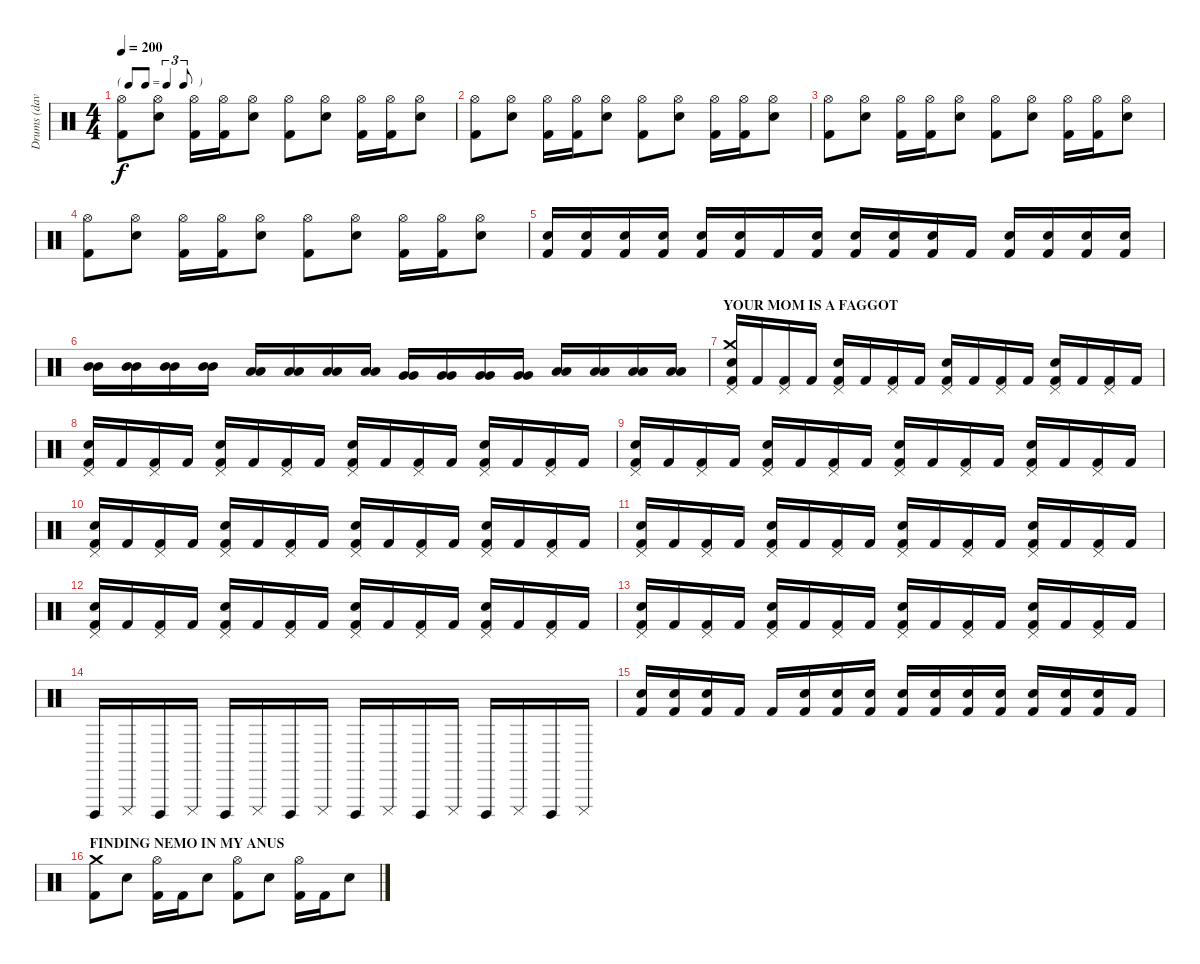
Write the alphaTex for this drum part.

\track ("Drums (dave)" "Drums (dav") {instrument percussion}
\staff {score}
\articulation defaults
\ts (4 4)
\tf triplet8th
\tempo 200
\clef neutral
\ks c
("Hi-Hat (open)" "Kick (hit) 2").8{dy f} ("Hi-Hat (open)" "Snare (hit) 2").8 ("Hi-Hat (open)" "Kick (hit) 2").16 ("Hi-Hat (open)" "Kick (hit) 2").16 ("Hi-Hat (open)" "Snare (hit) 2").8 ("Hi-Hat (open)" "Kick (hit) 2").8 ("Hi-Hat (open)" "Snare (hit) 2").8 ("Hi-Hat (open)" "Kick (hit) 2").16 ("Hi-Hat (open)" "Kick (hit) 2").16 ("Hi-Hat (open)" "Snare (hit) 2").8 |
("Hi-Hat (open)" "Kick (hit) 2").8 ("Hi-Hat (open)" "Snare (hit) 2").8 ("Hi-Hat (open)" "Kick (hit) 2").16 ("Hi-Hat (open)" "Kick (hit) 2").16 ("Hi-Hat (open)" "Snare (hit) 2").8 ("Hi-Hat (open)" "Kick (hit) 2").8 ("Hi-Hat (open)" "Snare (hit) 2").8 ("Hi-Hat (open)" "Kick (hit) 2").16 ("Hi-Hat (open)" "Kick (hit) 2").16 ("Hi-Hat (open)" "Snare (hit) 2").8 |
("Hi-Hat (open)" "Kick (hit) 2").8 ("Hi-Hat (open)" "Snare (hit) 2").8 ("Hi-Hat (open)" "Kick (hit) 2").16 ("Hi-Hat (open)" "Kick (hit) 2").16 ("Hi-Hat (open)" "Snare (hit) 2").8 ("Hi-Hat (open)" "Kick (hit) 2").8 ("Hi-Hat (open)" "Snare (hit) 2").8 ("Hi-Hat (open)" "Kick (hit) 2").16 ("Hi-Hat (open)" "Kick (hit) 2").16 ("Hi-Hat (open)" "Snare (hit) 2").8 |
("Hi-Hat (open)" "Kick (hit) 2").8 ("Hi-Hat (open)" "Snare (hit) 2").8 ("Hi-Hat (open)" "Kick (hit) 2").16 ("Hi-Hat (open)" "Kick (hit) 2").16 ("Hi-Hat (open)" "Snare (hit) 2").8 ("Hi-Hat (open)" "Kick (hit) 2").8 ("Hi-Hat (open)" "Snare (hit) 2").8 ("Hi-Hat (open)" "Kick (hit) 2").16 ("Hi-Hat (open)" "Kick (hit) 2").16 ("Hi-Hat (open)" "Snare (hit) 2").8 |
("Snare (hit) 2" "Kick (hit) 2").16 ("Snare (hit) 2" "Kick (hit) 2").16 ("Snare (hit) 2" "Kick (hit) 2").16 ("Snare (hit) 2" "Kick (hit) 2").16 ("Snare (hit) 2" "Kick (hit) 2").16 ("Snare (hit) 2" "Kick (hit) 2").16 "Kick (hit) 2".16 ("Snare (hit) 2" "Kick (hit) 2").16 ("Snare (hit) 2" "Kick (hit) 2").16 ("Snare (hit) 2" "Kick (hit) 2").16 ("Snare (hit) 2" "Kick (hit) 2").16 "Kick (hit) 2".16 ("Snare (hit) 2" "Kick (hit) 2").16 ("Snare (hit) 2" "Kick (hit) 2").16 ("Snare (hit) 2" "Kick (hit) 2").16 ("Snare (hit) 2" "Kick (hit) 2").16 |
("Mid Tom (hit)" "Mid Tom (hit)").16 ("Mid Tom (hit)" "Mid Tom (hit)").16 ("Mid Tom (hit)" "Mid Tom (hit)").16 ("Mid Tom (hit)" "Mid Tom (hit)").16 ("Low Tom (hit)" "Low Tom (hit)").16 ("Low Tom (hit)" "Low Tom (hit)").16 ("Low Tom (hit)" "Low Tom (hit)").16 ("Low Tom (hit)" "Low Tom (hit)").16 ("Very Low Tom (hit)" "Very Low Tom (hit)").16 ("Very Low Tom (hit)" "Very Low Tom (hit)").16 ("Very Low Tom (hit)" "Very Low Tom (hit)").16 ("Very Low Tom (hit)" "Very Low Tom (hit)").16 ("Low Floor Tom (hit)" "Low Floor Tom (hit)").16 ("Low Floor Tom (hit)" "Low Floor Tom (hit)").16 ("Low Floor Tom (hit)" "Low Floor Tom (hit)").16 ("Low Floor Tom (hit)" "Low Floor Tom (hit)").16 |
\section ("" "YOUR MOM IS A FAGGOT")
("Crash medium (hit)" "Pedal Hi-Hat (hit)" "Snare (hit) 2" "Kick (hit) 2").16 "Kick (hit) 2".16 ("Pedal Hi-Hat (hit)" "Kick (hit) 2").16 "Kick (hit) 2".16 ("Pedal Hi-Hat (hit)" "Snare (hit) 2" "Kick (hit) 2").16 "Kick (hit) 2".16 ("Pedal Hi-Hat (hit)" "Kick (hit) 2").16 "Kick (hit) 2".16 ("Pedal Hi-Hat (hit)" "Snare (hit) 2" "Kick (hit) 2").16 "Kick (hit) 2".16 ("Pedal Hi-Hat (hit)" "Kick (hit) 2").16 "Kick (hit) 2".16 ("Pedal Hi-Hat (hit)" "Snare (hit) 2" "Kick (hit) 2").16 "Kick (hit) 2".16 ("Pedal Hi-Hat (hit)" "Kick (hit) 2").16 "Kick (hit) 2".16 |
("Pedal Hi-Hat (hit)" "Snare (hit) 2" "Kick (hit) 2").16 "Kick (hit) 2".16 ("Pedal Hi-Hat (hit)" "Kick (hit) 2").16 "Kick (hit) 2".16 ("Pedal Hi-Hat (hit)" "Snare (hit) 2" "Kick (hit) 2").16 "Kick (hit) 2".16 ("Pedal Hi-Hat (hit)" "Kick (hit) 2").16 "Kick (hit) 2".16 ("Pedal Hi-Hat (hit)" "Snare (hit) 2" "Kick (hit) 2").16 "Kick (hit) 2".16 ("Pedal Hi-Hat (hit)" "Kick (hit) 2").16 "Kick (hit) 2".16 ("Pedal Hi-Hat (hit)" "Snare (hit) 2" "Kick (hit) 2").16 "Kick (hit) 2".16 ("Pedal Hi-Hat (hit)" "Kick (hit) 2").16 "Kick (hit) 2".16 |
("Pedal Hi-Hat (hit)" "Snare (hit) 2" "Kick (hit) 2").16 "Kick (hit) 2".16 ("Pedal Hi-Hat (hit)" "Kick (hit) 2").16 "Kick (hit) 2".16 ("Pedal Hi-Hat (hit)" "Snare (hit) 2" "Kick (hit) 2").16 "Kick (hit) 2".16 ("Pedal Hi-Hat (hit)" "Kick (hit) 2").16 "Kick (hit) 2".16 ("Pedal Hi-Hat (hit)" "Snare (hit) 2" "Kick (hit) 2").16 "Kick (hit) 2".16 ("Pedal Hi-Hat (hit)" "Kick (hit) 2").16 "Kick (hit) 2".16 ("Pedal Hi-Hat (hit)" "Snare (hit) 2" "Kick (hit) 2").16 "Kick (hit) 2".16 ("Pedal Hi-Hat (hit)" "Kick (hit) 2").16 "Kick (hit) 2".16 |
("Pedal Hi-Hat (hit)" "Snare (hit) 2" "Kick (hit) 2").16 "Kick (hit) 2".16 ("Pedal Hi-Hat (hit)" "Kick (hit) 2").16 "Kick (hit) 2".16 ("Pedal Hi-Hat (hit)" "Snare (hit) 2" "Kick (hit) 2").16 "Kick (hit) 2".16 ("Pedal Hi-Hat (hit)" "Kick (hit) 2").16 "Kick (hit) 2".16 ("Pedal Hi-Hat (hit)" "Snare (hit) 2" "Kick (hit) 2").16 "Kick (hit) 2".16 ("Pedal Hi-Hat (hit)" "Kick (hit) 2").16 "Kick (hit) 2".16 ("Pedal Hi-Hat (hit)" "Snare (hit) 2" "Kick (hit) 2").16 "Kick (hit) 2".16 ("Pedal Hi-Hat (hit)" "Kick (hit) 2").16 "Kick (hit) 2".16 |
("Pedal Hi-Hat (hit)" "Snare (hit) 2" "Kick (hit) 2").16 "Kick (hit) 2".16 ("Pedal Hi-Hat (hit)" "Kick (hit) 2").16 "Kick (hit) 2".16 ("Pedal Hi-Hat (hit)" "Snare (hit) 2" "Kick (hit) 2").16 "Kick (hit) 2".16 ("Pedal Hi-Hat (hit)" "Kick (hit) 2").16 "Kick (hit) 2".16 ("Pedal Hi-Hat (hit)" "Snare (hit) 2" "Kick (hit) 2").16 "Kick (hit) 2".16 ("Pedal Hi-Hat (hit)" "Kick (hit) 2").16 "Kick (hit) 2".16 ("Pedal Hi-Hat (hit)" "Snare (hit) 2" "Kick (hit) 2").16 "Kick (hit) 2".16 ("Pedal Hi-Hat (hit)" "Kick (hit) 2").16 "Kick (hit) 2".16 |
("Pedal Hi-Hat (hit)" "Snare (hit) 2" "Kick (hit) 2").16 "Kick (hit) 2".16 ("Pedal Hi-Hat (hit)" "Kick (hit) 2").16 "Kick (hit) 2".16 ("Pedal Hi-Hat (hit)" "Snare (hit) 2" "Kick (hit) 2").16 "Kick (hit) 2".16 ("Pedal Hi-Hat (hit)" "Kick (hit) 2").16 "Kick (hit) 2".16 ("Pedal Hi-Hat (hit)" "Snare (hit) 2" "Kick (hit) 2").16 "Kick (hit) 2".16 ("Pedal Hi-Hat (hit)" "Kick (hit) 2").16 "Kick (hit) 2".16 ("Pedal Hi-Hat (hit)" "Snare (hit) 2" "Kick (hit) 2").16 "Kick (hit) 2".16 ("Pedal Hi-Hat (hit)" "Kick (hit) 2").16 "Kick (hit) 2".16 |
("Pedal Hi-Hat (hit)" "Snare (hit) 2" "Kick (hit) 2").16 "Kick (hit) 2".16 ("Pedal Hi-Hat (hit)" "Kick (hit) 2").16 "Kick (hit) 2".16 ("Pedal Hi-Hat (hit)" "Snare (hit) 2" "Kick (hit) 2").16 "Kick (hit) 2".16 ("Pedal Hi-Hat (hit)" "Kick (hit) 2").16 "Kick (hit) 2".16 ("Pedal Hi-Hat (hit)" "Snare (hit) 2" "Kick (hit) 2").16 "Kick (hit) 2".16 ("Pedal Hi-Hat (hit)" "Kick (hit) 2").16 "Kick (hit) 2".16 ("Pedal Hi-Hat (hit)" "Snare (hit) 2" "Kick (hit) 2").16 "Kick (hit) 2".16 ("Pedal Hi-Hat (hit)" "Kick (hit) 2").16 "Kick (hit) 2".16 |
"Cuica (open)".16 "Cuica (mute)".16 "Cuica (open)".16 "Cuica (mute)".16 "Cuica (open)".16 "Cuica (mute)".16 "Cuica (open)".16 "Cuica (mute)".16 "Cuica (open)".16 "Cuica (mute)".16 "Cuica (open)".16 "Cuica (mute)".16 "Cuica (open)".16 "Cuica (mute)".16 "Cuica (open)".16 "Cuica (mute)".16 |
("Snare (hit) 2" "Kick (hit) 2").16 ("Snare (hit) 2" "Kick (hit) 2").16 ("Snare (hit) 2" "Kick (hit) 2").16 "Kick (hit) 2".16 "Kick (hit) 2".16 ("Snare (hit) 2" "Kick (hit) 2").16 ("Snare (hit) 2" "Kick (hit) 2").16 ("Snare (hit) 2" "Kick (hit) 2").16 ("Snare (hit) 2" "Kick (hit) 2").16 ("Snare (hit) 2" "Kick (hit) 2").16 ("Snare (hit) 2" "Kick (hit) 2").16 ("Snare (hit) 2" "Kick (hit) 2").16 ("Snare (hit) 2" "Kick (hit) 2").16 ("Snare (hit) 2" "Kick (hit) 2").16 ("Snare (hit) 2" "Kick (hit) 2").16 "Kick (hit) 2".16 |
\section ("" "FINDING NEMO IN MY ANUS")
("Crash medium (hit)" "Kick (hit) 2").8 "Snare (hit) 2".8 ("Hi-Hat (open)" "Kick (hit) 2").16 "Kick (hit) 2".16 "Snare (hit) 2".8 ("Hi-Hat (open)" "Kick (hit) 2").8 "Snare (hit) 2".8 ("Hi-Hat (open)" "Kick (hit) 2").16 "Kick (hit) 2".16 "Snare (hit) 2".8
